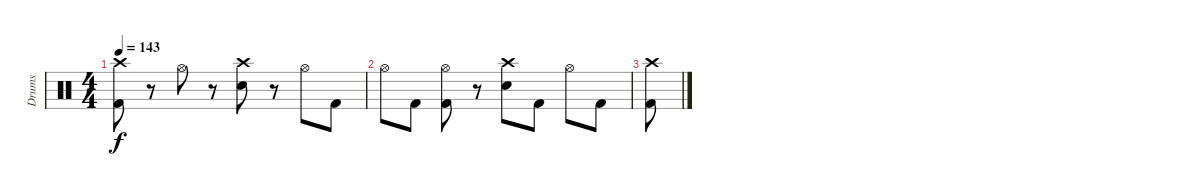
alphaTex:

\track ("Drums" "Drums") {instrument percussion}
\staff {score}
\articulation defaults
\ts (4 4)
\tempo 143
\clef neutral
\ks c
("Crash high (hit)" "Kick (hit) 2").8{dy f} r.8 "Hi-Hat (open)".8 r.8 ("Crash high (hit)" "Electric Snare (hit)").8 r.8 "Hi-Hat (open)".8 "Kick (hit) 2".8 |
"Hi-Hat (open)".8 "Kick (hit) 2".8 ("Kick (hit) 2" "Hi-Hat (open)").8 r.8 ("Crash high (hit)" "Electric Snare (hit)").8 "Kick (hit) 2".8 "Hi-Hat (open)".8 "Kick (hit) 2".8 |
("Crash high (hit)" "Kick (hit) 2").8
